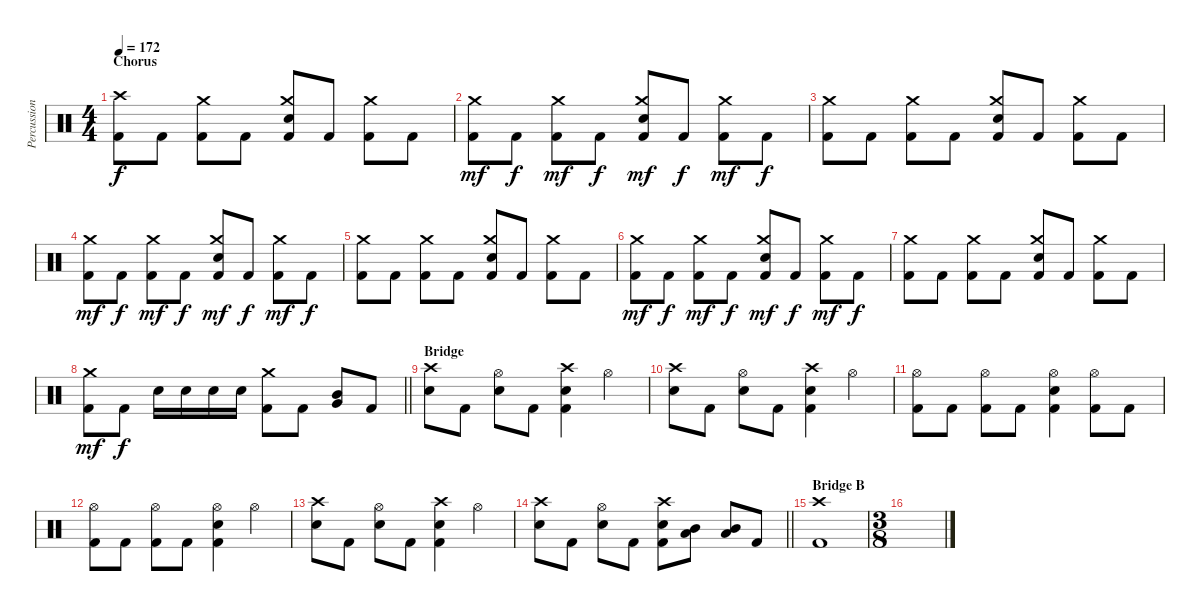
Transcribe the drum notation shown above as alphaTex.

\track ("Percussion" "Percussion") {instrument percussion}
\staff {score}
\articulation defaults
\ts (4 4)
\section ("" "Chorus")
\tempo 172
\clef neutral
\ks c
("Crash high (hit)" "Kick (hit) 2").8{dy f} "Kick (hit) 2".8 ("Crash medium (hit)" "Kick (hit) 2").8 "Kick (hit) 2".8 ("Crash medium (hit)" "Snare (hit) 2" "Kick (hit) 2").8 "Kick (hit) 2".8 ("Crash medium (hit)" "Kick (hit) 2").8 "Kick (hit) 2".8 |
("Crash medium (hit)" "Kick (hit) 2").8{dy mf} "Kick (hit) 2".8{dy f} ("Crash medium (hit)" "Kick (hit) 2").8{dy mf} "Kick (hit) 2".8{dy f} ("Crash medium (hit)" "Snare (hit) 2" "Kick (hit) 2").8{dy mf} "Kick (hit) 2".8{dy f} ("Crash medium (hit)" "Kick (hit) 2").8{dy mf} "Kick (hit) 2".8{dy f} |
("Crash medium (hit)" "Kick (hit) 2").8 "Kick (hit) 2".8 ("Crash medium (hit)" "Kick (hit) 2").8 "Kick (hit) 2".8 ("Crash medium (hit)" "Snare (hit) 2" "Kick (hit) 2").8 "Kick (hit) 2".8 ("Crash medium (hit)" "Kick (hit) 2").8 "Kick (hit) 2".8 |
("Crash medium (hit)" "Kick (hit) 2").8{dy mf} "Kick (hit) 2".8{dy f} ("Crash medium (hit)" "Kick (hit) 2").8{dy mf} "Kick (hit) 2".8{dy f} ("Crash medium (hit)" "Snare (hit) 2" "Kick (hit) 2").8{dy mf} "Kick (hit) 2".8{dy f} ("Crash medium (hit)" "Kick (hit) 2").8{dy mf} "Kick (hit) 2".8{dy f} |
("Crash medium (hit)" "Kick (hit) 2").8 "Kick (hit) 2".8 ("Crash medium (hit)" "Kick (hit) 2").8 "Kick (hit) 2".8 ("Crash medium (hit)" "Snare (hit) 2" "Kick (hit) 2").8 "Kick (hit) 2".8 ("Crash medium (hit)" "Kick (hit) 2").8 "Kick (hit) 2".8 |
("Crash medium (hit)" "Kick (hit) 2").8{dy mf} "Kick (hit) 2".8{dy f} ("Crash medium (hit)" "Kick (hit) 2").8{dy mf} "Kick (hit) 2".8{dy f} ("Crash medium (hit)" "Snare (hit) 2" "Kick (hit) 2").8{dy mf} "Kick (hit) 2".8{dy f} ("Crash medium (hit)" "Kick (hit) 2").8{dy mf} "Kick (hit) 2".8{dy f} |
("Crash medium (hit)" "Kick (hit) 2").8 "Kick (hit) 2".8 ("Crash medium (hit)" "Kick (hit) 2").8 "Kick (hit) 2".8 ("Crash medium (hit)" "Snare (hit) 2" "Kick (hit) 2").8 "Kick (hit) 2".8 ("Crash medium (hit)" "Kick (hit) 2").8 "Kick (hit) 2".8 |
\barLineRight lightlight
("Crash medium (hit)" "Kick (hit) 2").8{dy mf} "Kick (hit) 2".8{dy f} "Snare (hit) 2".16 "Snare (hit) 2".16 "Snare (hit) 2".16 "Snare (hit) 2".16 ("Crash medium (hit)" "Kick (hit) 2").8 "Kick (hit) 2".8 ("Very Low Tom (hit)" "Mid Tom (hit)").8 "Kick (hit) 2".8 |
\section ("" "Bridge")
("Crash high (hit)" "Snare (hit) 2").8 "Kick (hit) 2".8 ("Hi-Hat (open)" "Snare (hit) 2").8 "Kick (hit) 2".8 ("Crash high (hit)" "Snare (hit) 2" "Kick (hit) 2").4 "Hi-Hat (open)".4 |
("Crash high (hit)" "Snare (hit) 2").8 "Kick (hit) 2".8 ("Hi-Hat (open)" "Snare (hit) 2").8 "Kick (hit) 2".8 ("Crash high (hit)" "Snare (hit) 2" "Kick (hit) 2").4 "Hi-Hat (open)".4 |
("Hi-Hat (open)" "Kick (hit) 2").8 "Kick (hit) 2".8 ("Hi-Hat (open)" "Kick (hit) 2").8 "Kick (hit) 2".8 ("Hi-Hat (open)" "Snare (hit) 2" "Kick (hit) 2").4 ("Hi-Hat (open)" "Kick (hit) 2").8 "Kick (hit) 2".8 |
("Hi-Hat (open)" "Kick (hit) 2").8 "Kick (hit) 2".8 ("Hi-Hat (open)" "Kick (hit) 2").8 "Kick (hit) 2".8 ("Hi-Hat (open)" "Snare (hit) 2" "Kick (hit) 2").4 "Hi-Hat (open)".4 |
("Crash high (hit)" "Snare (hit) 2").8 "Kick (hit) 2".8 ("Hi-Hat (open)" "Snare (hit) 2").8 "Kick (hit) 2".8 ("Crash high (hit)" "Snare (hit) 2" "Kick (hit) 2").4 "Hi-Hat (open)".4 |
\barLineRight lightlight
("Crash high (hit)" "Snare (hit) 2").8 "Kick (hit) 2".8 ("Hi-Hat (open)" "Snare (hit) 2").8 "Kick (hit) 2".8 ("Crash high (hit)" "Snare (hit) 2" "Kick (hit) 2").8 ("Mid Tom (hit)" "Low Tom (hit)").8 ("Mid Tom (hit)" "Low Tom (hit)").8 "Kick (hit) 2".8 |
\section ("" "Bridge B")
("Crash high (hit)" "Kick (hit) 2").1 |
\ts (3 8)
